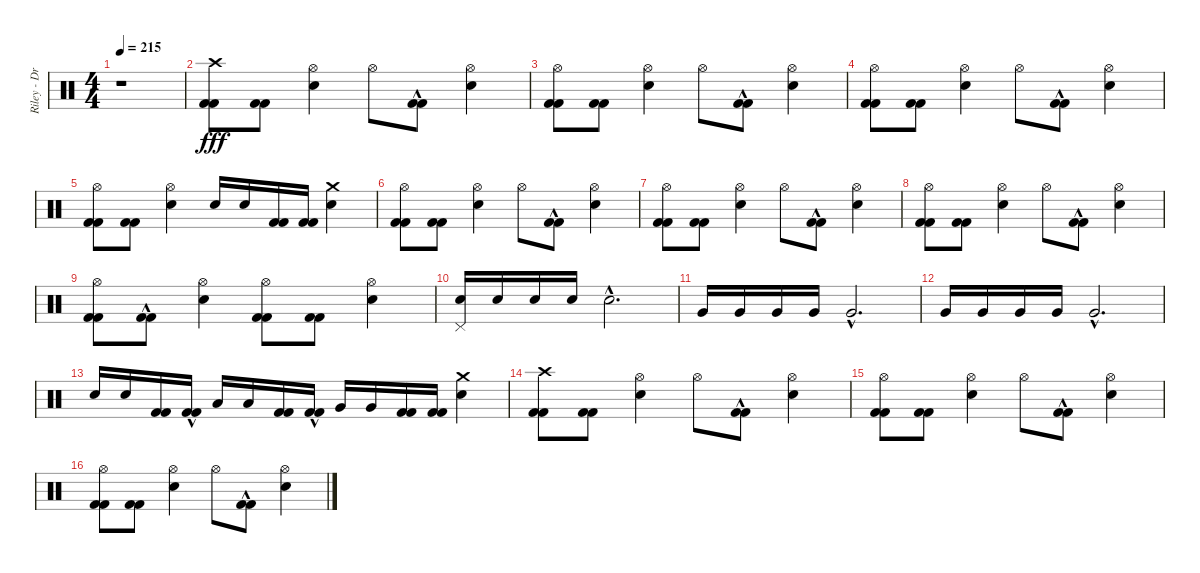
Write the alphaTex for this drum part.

\track ("Riley - Drums" "Riley - Dr") {instrument percussion}
\staff {score}
\articulation defaults
\ts (4 4)
\tempo 215
\clef neutral
\ks c
r.1{dy fff} |
("Kick (hit) 2" "Kick (hit) 2" "Crash high (hit)").8 ("Kick (hit) 2" "Kick (hit) 2").8 ("Electric Snare (hit)" "Hi-Hat (open)").4 "Hi-Hat (open)".8 ("Kick (hit) 2"{hac} "Kick (hit) 2"{hac}).8 ("Electric Snare (hit)" "Hi-Hat (open)").4 |
("Kick (hit) 2" "Kick (hit) 2" "Hi-Hat (open)").8 ("Kick (hit) 2" "Kick (hit) 2").8 ("Electric Snare (hit)" "Hi-Hat (open)").4 "Hi-Hat (open)".8 ("Kick (hit) 2"{hac} "Kick (hit) 2"{hac}).8 ("Electric Snare (hit)" "Hi-Hat (open)").4 |
("Kick (hit) 2" "Kick (hit) 2" "Hi-Hat (open)").8 ("Kick (hit) 2" "Kick (hit) 2").8 ("Electric Snare (hit)" "Hi-Hat (open)").4 "Hi-Hat (open)".8 ("Kick (hit) 2"{hac} "Kick (hit) 2"{hac}).8 ("Electric Snare (hit)" "Hi-Hat (open)").4 |
("Kick (hit) 2" "Kick (hit) 2" "Hi-Hat (open)").8 ("Kick (hit) 2" "Kick (hit) 2").8 ("Electric Snare (hit)" "Hi-Hat (open)").4 "Electric Snare (hit)".16 "Electric Snare (hit)".16 ("Kick (hit) 2" "Kick (hit) 2").16 ("Kick (hit) 2" "Kick (hit) 2").16 ("Electric Snare (hit)" "Crash medium (hit)").4 |
("Kick (hit) 2" "Kick (hit) 2" "Hi-Hat (open)").8 ("Kick (hit) 2" "Kick (hit) 2").8 ("Electric Snare (hit)" "Hi-Hat (open)").4 "Hi-Hat (open)".8 ("Kick (hit) 2"{hac} "Kick (hit) 2"{hac}).8 ("Electric Snare (hit)" "Hi-Hat (open)").4 |
("Kick (hit) 2" "Kick (hit) 2" "Hi-Hat (open)").8 ("Kick (hit) 2" "Kick (hit) 2").8 ("Electric Snare (hit)" "Hi-Hat (open)").4 "Hi-Hat (open)".8 ("Kick (hit) 2"{hac} "Kick (hit) 2"{hac}).8 ("Electric Snare (hit)" "Hi-Hat (open)").4 |
("Kick (hit) 2" "Kick (hit) 2" "Hi-Hat (open)").8 ("Kick (hit) 2" "Kick (hit) 2").8 ("Electric Snare (hit)" "Hi-Hat (open)").4 "Hi-Hat (open)".8 ("Kick (hit) 2"{hac} "Kick (hit) 2"{hac}).8 ("Electric Snare (hit)" "Hi-Hat (open)").4 |
("Kick (hit) 2" "Kick (hit) 2" "Hi-Hat (open)").8 ("Kick (hit) 2"{hac} "Kick (hit) 2"{hac}).8 ("Electric Snare (hit)" "Hi-Hat (open)").4 ("Kick (hit) 2" "Kick (hit) 2" "Hi-Hat (open)").8 ("Kick (hit) 2" "Kick (hit) 2").8 ("Electric Snare (hit)" "Hi-Hat (open)").4 |
("Electric Snare (hit)" "Pedal Hi-Hat (hit)").16 "Electric Snare (hit)".16 "Electric Snare (hit)".16 "Electric Snare (hit)".16 "Electric Snare (hit)"{hac}.2{d} |
"Very Low Tom (hit)".16 "Very Low Tom (hit)".16 "Very Low Tom (hit)".16 "Very Low Tom (hit)".16 "Very Low Tom (hit)"{hac}.2{d} |
"Very Low Tom (hit)".16 "Very Low Tom (hit)".16 "Very Low Tom (hit)".16 "Very Low Tom (hit)".16 "Very Low Tom (hit)"{hac}.2{d} |
"Electric Snare (hit)".16 "Electric Snare (hit)".16 ("Kick (hit) 2" "Kick (hit) 2").16 ("Kick (hit) 2"{hac} "Kick (hit) 2"{hac}).16 "Low Tom (hit)".16 "Low Tom (hit)".16 ("Kick (hit) 2" "Kick (hit) 2").16 ("Kick (hit) 2"{hac} "Kick (hit) 2"{hac}).16 "Very Low Tom (hit)".16 "Very Low Tom (hit)".16 ("Kick (hit) 2" "Kick (hit) 2").16 ("Kick (hit) 2" "Kick (hit) 2").16 ("Electric Snare (hit)" "Crash medium (hit)").4 |
("Kick (hit) 2" "Kick (hit) 2" "Crash high (hit)").8 ("Kick (hit) 2" "Kick (hit) 2").8 ("Electric Snare (hit)" "Hi-Hat (open)").4 "Hi-Hat (open)".8 ("Kick (hit) 2"{hac} "Kick (hit) 2"{hac}).8 ("Electric Snare (hit)" "Hi-Hat (open)").4 |
("Kick (hit) 2" "Kick (hit) 2" "Hi-Hat (open)").8 ("Kick (hit) 2" "Kick (hit) 2").8 ("Electric Snare (hit)" "Hi-Hat (open)").4 "Hi-Hat (open)".8 ("Kick (hit) 2"{hac} "Kick (hit) 2"{hac}).8 ("Electric Snare (hit)" "Hi-Hat (open)").4 |
("Kick (hit) 2" "Kick (hit) 2" "Hi-Hat (open)").8 ("Kick (hit) 2" "Kick (hit) 2").8 ("Electric Snare (hit)" "Hi-Hat (open)").4 "Hi-Hat (open)".8 ("Kick (hit) 2"{hac} "Kick (hit) 2"{hac}).8 ("Electric Snare (hit)" "Hi-Hat (open)").4
